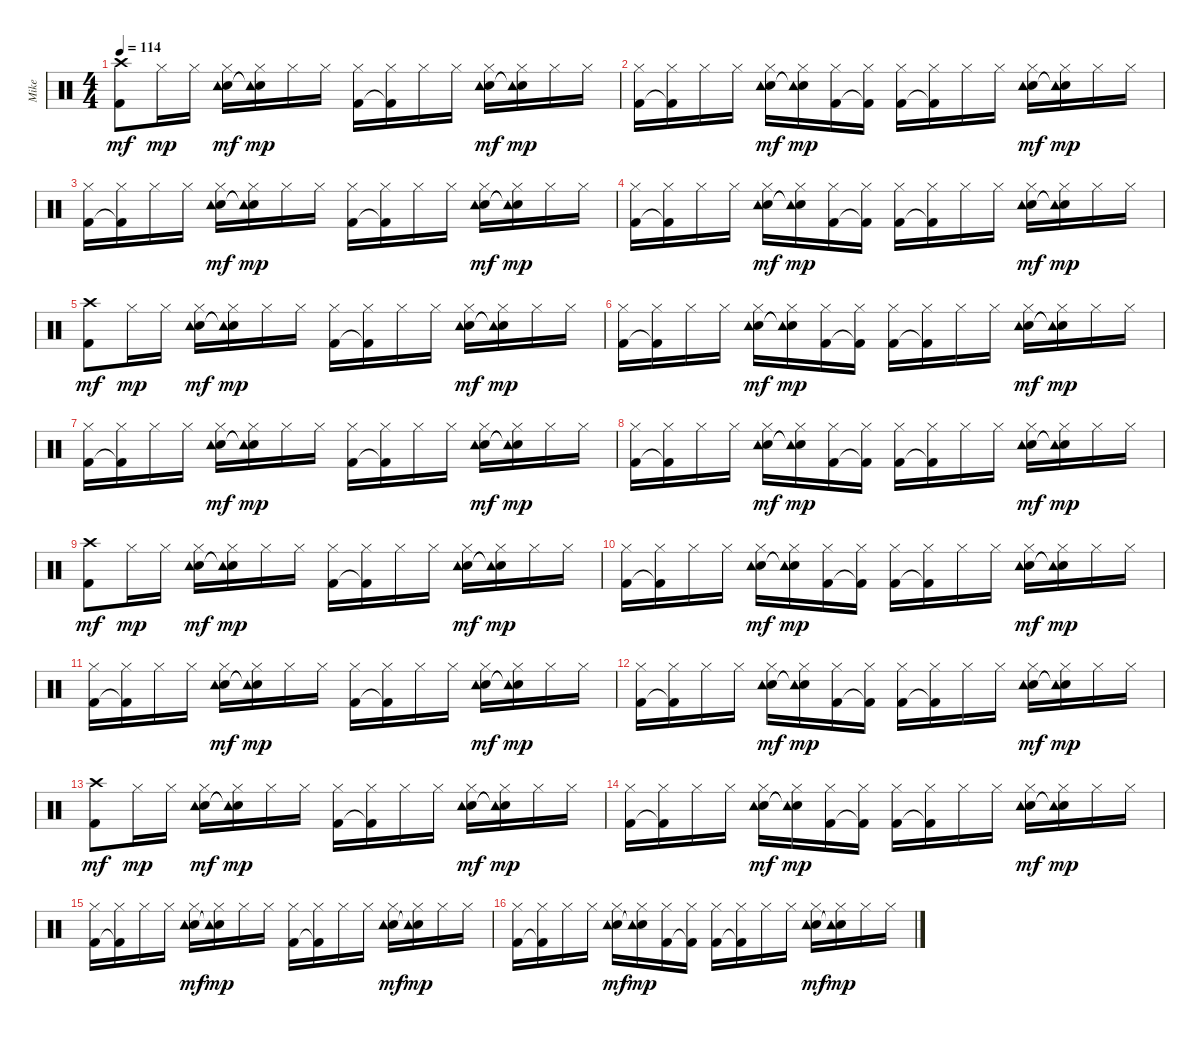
\track ("Mike" "Mike") {instrument percussion}
\staff {score}
\articulation defaults
\ts (4 4)
\tempo 114
\clef neutral
\ks c
("Crash high (hit)" "Kick (hit) 2").8{dy mf} "Hi-Hat (closed)".16{dy mp} "Hi-Hat (closed)".16 ("Hi-Hat (closed)" "Electric Snare (hit)" "Tambourine (hit)").16{dy mf} ("Hi-Hat (closed)" "Electric Snare (hit)"{t} "Tambourine (hit)"{t}).16{dy mp} "Hi-Hat (closed)".16 "Hi-Hat (closed)".16 ("Hi-Hat (closed)" "Kick (hit) 2").16 ("Hi-Hat (closed)" "Kick (hit) 2"{t}).16 "Hi-Hat (closed)".16 "Hi-Hat (closed)".16 ("Hi-Hat (closed)" "Electric Snare (hit)" "Tambourine (hit)").16{dy mf} ("Hi-Hat (closed)" "Electric Snare (hit)"{t} "Tambourine (hit)"{t}).16{dy mp} "Hi-Hat (closed)".16 "Hi-Hat (closed)".16 |
("Hi-Hat (closed)" "Kick (hit) 2").16 ("Hi-Hat (closed)" "Kick (hit) 2"{t}).16 "Hi-Hat (closed)".16 "Hi-Hat (closed)".16 ("Hi-Hat (closed)" "Electric Snare (hit)" "Tambourine (hit)").16{dy mf} ("Hi-Hat (closed)" "Electric Snare (hit)"{t} "Tambourine (hit)"{t}).16{dy mp} ("Hi-Hat (closed)" "Kick (hit) 2").16 ("Hi-Hat (closed)" "Kick (hit) 2"{t}).16 ("Hi-Hat (closed)" "Kick (hit) 2").16 ("Hi-Hat (closed)" "Kick (hit) 2"{t}).16 "Hi-Hat (closed)".16 "Hi-Hat (closed)".16 ("Hi-Hat (closed)" "Electric Snare (hit)" "Tambourine (hit)").16{dy mf} ("Hi-Hat (closed)" "Electric Snare (hit)"{t} "Tambourine (hit)"{t}).16{dy mp} "Hi-Hat (closed)".16 "Hi-Hat (closed)".16 |
("Hi-Hat (closed)" "Kick (hit) 2").16 ("Hi-Hat (closed)" "Kick (hit) 2"{t}).16 "Hi-Hat (closed)".16 "Hi-Hat (closed)".16 ("Hi-Hat (closed)" "Electric Snare (hit)" "Tambourine (hit)").16{dy mf} ("Hi-Hat (closed)" "Electric Snare (hit)"{t} "Tambourine (hit)"{t}).16{dy mp} "Hi-Hat (closed)".16 "Hi-Hat (closed)".16 ("Hi-Hat (closed)" "Kick (hit) 2").16 ("Hi-Hat (closed)" "Kick (hit) 2"{t}).16 "Hi-Hat (closed)".16 "Hi-Hat (closed)".16 ("Hi-Hat (closed)" "Electric Snare (hit)" "Tambourine (hit)").16{dy mf} ("Hi-Hat (closed)" "Electric Snare (hit)"{t} "Tambourine (hit)"{t}).16{dy mp} "Hi-Hat (closed)".16 "Hi-Hat (closed)".16 |
("Hi-Hat (closed)" "Kick (hit) 2").16 ("Hi-Hat (closed)" "Kick (hit) 2"{t}).16 "Hi-Hat (closed)".16 "Hi-Hat (closed)".16 ("Hi-Hat (closed)" "Electric Snare (hit)" "Tambourine (hit)").16{dy mf} ("Hi-Hat (closed)" "Electric Snare (hit)"{t} "Tambourine (hit)"{t}).16{dy mp} ("Hi-Hat (closed)" "Kick (hit) 2").16 ("Hi-Hat (closed)" "Kick (hit) 2"{t}).16 ("Hi-Hat (closed)" "Kick (hit) 2").16 ("Hi-Hat (closed)" "Kick (hit) 2"{t}).16 "Hi-Hat (closed)".16 "Hi-Hat (closed)".16 ("Hi-Hat (closed)" "Electric Snare (hit)" "Tambourine (hit)").16{dy mf} ("Hi-Hat (closed)" "Electric Snare (hit)"{t} "Tambourine (hit)"{t}).16{dy mp} "Hi-Hat (closed)".16 "Hi-Hat (closed)".16 |
("Crash high (hit)" "Kick (hit) 2").8{dy mf} "Hi-Hat (closed)".16{dy mp} "Hi-Hat (closed)".16 ("Hi-Hat (closed)" "Electric Snare (hit)" "Tambourine (hit)").16{dy mf} ("Hi-Hat (closed)" "Electric Snare (hit)"{t} "Tambourine (hit)"{t}).16{dy mp} "Hi-Hat (closed)".16 "Hi-Hat (closed)".16 ("Hi-Hat (closed)" "Kick (hit) 2").16 ("Hi-Hat (closed)" "Kick (hit) 2"{t}).16 "Hi-Hat (closed)".16 "Hi-Hat (closed)".16 ("Hi-Hat (closed)" "Electric Snare (hit)" "Tambourine (hit)").16{dy mf} ("Hi-Hat (closed)" "Electric Snare (hit)"{t} "Tambourine (hit)"{t}).16{dy mp} "Hi-Hat (closed)".16 "Hi-Hat (closed)".16 |
("Hi-Hat (closed)" "Kick (hit) 2").16 ("Hi-Hat (closed)" "Kick (hit) 2"{t}).16 "Hi-Hat (closed)".16 "Hi-Hat (closed)".16 ("Hi-Hat (closed)" "Electric Snare (hit)" "Tambourine (hit)").16{dy mf} ("Hi-Hat (closed)" "Electric Snare (hit)"{t} "Tambourine (hit)"{t}).16{dy mp} ("Hi-Hat (closed)" "Kick (hit) 2").16 ("Hi-Hat (closed)" "Kick (hit) 2"{t}).16 ("Hi-Hat (closed)" "Kick (hit) 2").16 ("Hi-Hat (closed)" "Kick (hit) 2"{t}).16 "Hi-Hat (closed)".16 "Hi-Hat (closed)".16 ("Hi-Hat (closed)" "Electric Snare (hit)" "Tambourine (hit)").16{dy mf} ("Hi-Hat (closed)" "Electric Snare (hit)"{t} "Tambourine (hit)"{t}).16{dy mp} "Hi-Hat (closed)".16 "Hi-Hat (closed)".16 |
("Hi-Hat (closed)" "Kick (hit) 2").16 ("Hi-Hat (closed)" "Kick (hit) 2"{t}).16 "Hi-Hat (closed)".16 "Hi-Hat (closed)".16 ("Hi-Hat (closed)" "Electric Snare (hit)" "Tambourine (hit)").16{dy mf} ("Hi-Hat (closed)" "Electric Snare (hit)"{t} "Tambourine (hit)"{t}).16{dy mp} "Hi-Hat (closed)".16 "Hi-Hat (closed)".16 ("Hi-Hat (closed)" "Kick (hit) 2").16 ("Hi-Hat (closed)" "Kick (hit) 2"{t}).16 "Hi-Hat (closed)".16 "Hi-Hat (closed)".16 ("Hi-Hat (closed)" "Electric Snare (hit)" "Tambourine (hit)").16{dy mf} ("Hi-Hat (closed)" "Electric Snare (hit)"{t} "Tambourine (hit)"{t}).16{dy mp} "Hi-Hat (closed)".16 "Hi-Hat (closed)".16 |
("Hi-Hat (closed)" "Kick (hit) 2").16 ("Hi-Hat (closed)" "Kick (hit) 2"{t}).16 "Hi-Hat (closed)".16 "Hi-Hat (closed)".16 ("Hi-Hat (closed)" "Electric Snare (hit)" "Tambourine (hit)").16{dy mf} ("Hi-Hat (closed)" "Electric Snare (hit)"{t} "Tambourine (hit)"{t}).16{dy mp} ("Hi-Hat (closed)" "Kick (hit) 2").16 ("Hi-Hat (closed)" "Kick (hit) 2"{t}).16 ("Hi-Hat (closed)" "Kick (hit) 2").16 ("Hi-Hat (closed)" "Kick (hit) 2"{t}).16 "Hi-Hat (closed)".16 "Hi-Hat (closed)".16 ("Hi-Hat (closed)" "Electric Snare (hit)" "Tambourine (hit)").16{dy mf} ("Hi-Hat (closed)" "Electric Snare (hit)"{t} "Tambourine (hit)"{t}).16{dy mp} "Hi-Hat (closed)".16 "Hi-Hat (closed)".16 |
("Crash high (hit)" "Kick (hit) 2").8{dy mf} "Hi-Hat (closed)".16{dy mp} "Hi-Hat (closed)".16 ("Hi-Hat (closed)" "Electric Snare (hit)" "Tambourine (hit)").16{dy mf} ("Hi-Hat (closed)" "Electric Snare (hit)"{t} "Tambourine (hit)"{t}).16{dy mp} "Hi-Hat (closed)".16 "Hi-Hat (closed)".16 ("Hi-Hat (closed)" "Kick (hit) 2").16 ("Hi-Hat (closed)" "Kick (hit) 2"{t}).16 "Hi-Hat (closed)".16 "Hi-Hat (closed)".16 ("Hi-Hat (closed)" "Electric Snare (hit)" "Tambourine (hit)").16{dy mf} ("Hi-Hat (closed)" "Electric Snare (hit)"{t} "Tambourine (hit)"{t}).16{dy mp} "Hi-Hat (closed)".16 "Hi-Hat (closed)".16 |
("Hi-Hat (closed)" "Kick (hit) 2").16 ("Hi-Hat (closed)" "Kick (hit) 2"{t}).16 "Hi-Hat (closed)".16 "Hi-Hat (closed)".16 ("Hi-Hat (closed)" "Electric Snare (hit)" "Tambourine (hit)").16{dy mf} ("Hi-Hat (closed)" "Electric Snare (hit)"{t} "Tambourine (hit)"{t}).16{dy mp} ("Hi-Hat (closed)" "Kick (hit) 2").16 ("Hi-Hat (closed)" "Kick (hit) 2"{t}).16 ("Hi-Hat (closed)" "Kick (hit) 2").16 ("Hi-Hat (closed)" "Kick (hit) 2"{t}).16 "Hi-Hat (closed)".16 "Hi-Hat (closed)".16 ("Hi-Hat (closed)" "Electric Snare (hit)" "Tambourine (hit)").16{dy mf} ("Hi-Hat (closed)" "Electric Snare (hit)"{t} "Tambourine (hit)"{t}).16{dy mp} "Hi-Hat (closed)".16 "Hi-Hat (closed)".16 |
("Hi-Hat (closed)" "Kick (hit) 2").16 ("Hi-Hat (closed)" "Kick (hit) 2"{t}).16 "Hi-Hat (closed)".16 "Hi-Hat (closed)".16 ("Hi-Hat (closed)" "Electric Snare (hit)" "Tambourine (hit)").16{dy mf} ("Hi-Hat (closed)" "Electric Snare (hit)"{t} "Tambourine (hit)"{t}).16{dy mp} "Hi-Hat (closed)".16 "Hi-Hat (closed)".16 ("Hi-Hat (closed)" "Kick (hit) 2").16 ("Hi-Hat (closed)" "Kick (hit) 2"{t}).16 "Hi-Hat (closed)".16 "Hi-Hat (closed)".16 ("Hi-Hat (closed)" "Electric Snare (hit)" "Tambourine (hit)").16{dy mf} ("Hi-Hat (closed)" "Electric Snare (hit)"{t} "Tambourine (hit)"{t}).16{dy mp} "Hi-Hat (closed)".16 "Hi-Hat (closed)".16 |
("Hi-Hat (closed)" "Kick (hit) 2").16 ("Hi-Hat (closed)" "Kick (hit) 2"{t}).16 "Hi-Hat (closed)".16 "Hi-Hat (closed)".16 ("Hi-Hat (closed)" "Electric Snare (hit)" "Tambourine (hit)").16{dy mf} ("Hi-Hat (closed)" "Electric Snare (hit)"{t} "Tambourine (hit)"{t}).16{dy mp} ("Hi-Hat (closed)" "Kick (hit) 2").16 ("Hi-Hat (closed)" "Kick (hit) 2"{t}).16 ("Hi-Hat (closed)" "Kick (hit) 2").16 ("Hi-Hat (closed)" "Kick (hit) 2"{t}).16 "Hi-Hat (closed)".16 "Hi-Hat (closed)".16 ("Hi-Hat (closed)" "Electric Snare (hit)" "Tambourine (hit)").16{dy mf} ("Hi-Hat (closed)" "Electric Snare (hit)"{t} "Tambourine (hit)"{t}).16{dy mp} "Hi-Hat (closed)".16 "Hi-Hat (closed)".16 |
("Crash high (hit)" "Kick (hit) 2").8{dy mf} "Hi-Hat (closed)".16{dy mp} "Hi-Hat (closed)".16 ("Hi-Hat (closed)" "Electric Snare (hit)" "Tambourine (hit)").16{dy mf} ("Hi-Hat (closed)" "Electric Snare (hit)"{t} "Tambourine (hit)"{t}).16{dy mp} "Hi-Hat (closed)".16 "Hi-Hat (closed)".16 ("Hi-Hat (closed)" "Kick (hit) 2").16 ("Hi-Hat (closed)" "Kick (hit) 2"{t}).16 "Hi-Hat (closed)".16 "Hi-Hat (closed)".16 ("Hi-Hat (closed)" "Electric Snare (hit)" "Tambourine (hit)").16{dy mf} ("Hi-Hat (closed)" "Electric Snare (hit)"{t} "Tambourine (hit)"{t}).16{dy mp} "Hi-Hat (closed)".16 "Hi-Hat (closed)".16 |
("Hi-Hat (closed)" "Kick (hit) 2").16 ("Hi-Hat (closed)" "Kick (hit) 2"{t}).16 "Hi-Hat (closed)".16 "Hi-Hat (closed)".16 ("Hi-Hat (closed)" "Electric Snare (hit)" "Tambourine (hit)").16{dy mf} ("Hi-Hat (closed)" "Electric Snare (hit)"{t} "Tambourine (hit)"{t}).16{dy mp} ("Hi-Hat (closed)" "Kick (hit) 2").16 ("Hi-Hat (closed)" "Kick (hit) 2"{t}).16 ("Hi-Hat (closed)" "Kick (hit) 2").16 ("Hi-Hat (closed)" "Kick (hit) 2"{t}).16 "Hi-Hat (closed)".16 "Hi-Hat (closed)".16 ("Hi-Hat (closed)" "Electric Snare (hit)" "Tambourine (hit)").16{dy mf} ("Hi-Hat (closed)" "Electric Snare (hit)"{t} "Tambourine (hit)"{t}).16{dy mp} "Hi-Hat (closed)".16 "Hi-Hat (closed)".16 |
("Hi-Hat (closed)" "Kick (hit) 2").16 ("Hi-Hat (closed)" "Kick (hit) 2"{t}).16 "Hi-Hat (closed)".16 "Hi-Hat (closed)".16 ("Hi-Hat (closed)" "Electric Snare (hit)" "Tambourine (hit)").16{dy mf} ("Hi-Hat (closed)" "Electric Snare (hit)"{t} "Tambourine (hit)"{t}).16{dy mp} "Hi-Hat (closed)".16 "Hi-Hat (closed)".16 ("Hi-Hat (closed)" "Kick (hit) 2").16 ("Hi-Hat (closed)" "Kick (hit) 2"{t}).16 "Hi-Hat (closed)".16 "Hi-Hat (closed)".16 ("Hi-Hat (closed)" "Electric Snare (hit)" "Tambourine (hit)").16{dy mf} ("Hi-Hat (closed)" "Electric Snare (hit)"{t} "Tambourine (hit)"{t}).16{dy mp} "Hi-Hat (closed)".16 "Hi-Hat (closed)".16 |
("Hi-Hat (closed)" "Kick (hit) 2").16 ("Hi-Hat (closed)" "Kick (hit) 2"{t}).16 "Hi-Hat (closed)".16 "Hi-Hat (closed)".16 ("Hi-Hat (closed)" "Electric Snare (hit)" "Tambourine (hit)").16{dy mf} ("Hi-Hat (closed)" "Electric Snare (hit)"{t} "Tambourine (hit)"{t}).16{dy mp} ("Hi-Hat (closed)" "Kick (hit) 2").16 ("Hi-Hat (closed)" "Kick (hit) 2"{t}).16 ("Hi-Hat (closed)" "Kick (hit) 2").16 ("Hi-Hat (closed)" "Kick (hit) 2"{t}).16 "Hi-Hat (closed)".16 "Hi-Hat (closed)".16 ("Hi-Hat (closed)" "Electric Snare (hit)" "Tambourine (hit)").16{dy mf} ("Hi-Hat (closed)" "Electric Snare (hit)"{t} "Tambourine (hit)"{t}).16{dy mp} "Hi-Hat (closed)".16 "Hi-Hat (closed)".16
